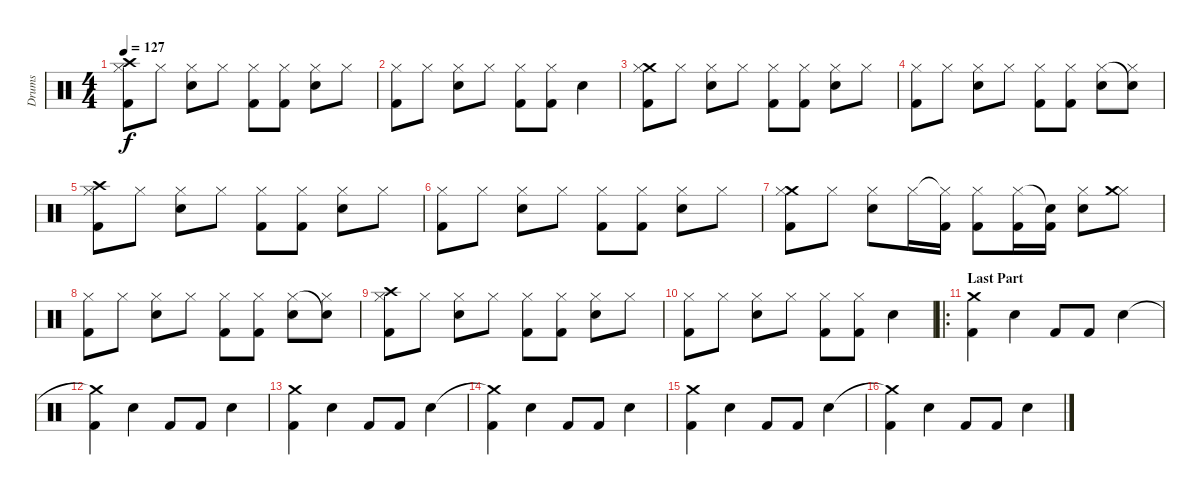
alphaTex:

\track ("Drums" "Drums") {instrument percussion}
\staff {score}
\articulation defaults
\ts (4 4)
\tempo 127
\clef neutral
\ks c
("Crash high (hit)" "Hi-Hat (closed)" "Kick (hit) 2").8{dy f} "Hi-Hat (closed)".8 ("Hi-Hat (closed)" "Electric Snare (hit)").8 "Hi-Hat (closed)".8 ("Hi-Hat (closed)" "Kick (hit) 2").8 ("Hi-Hat (closed)" "Kick (hit) 2").8 ("Hi-Hat (closed)" "Electric Snare (hit)").8 "Hi-Hat (closed)".8 |
("Hi-Hat (closed)" "Kick (hit) 2").8 "Hi-Hat (closed)".8 ("Hi-Hat (closed)" "Electric Snare (hit)").8 "Hi-Hat (closed)".8 ("Hi-Hat (closed)" "Kick (hit) 2").8 ("Hi-Hat (closed)" "Kick (hit) 2").8 "Electric Snare (hit)".4 |
("Crash medium (hit)" "Hi-Hat (closed)" "Kick (hit) 2").8 "Hi-Hat (closed)".8 ("Hi-Hat (closed)" "Electric Snare (hit)").8 "Hi-Hat (closed)".8 ("Hi-Hat (closed)" "Kick (hit) 2").8 ("Hi-Hat (closed)" "Kick (hit) 2").8 ("Hi-Hat (closed)" "Electric Snare (hit)").8 "Hi-Hat (closed)".8 |
("Hi-Hat (closed)" "Kick (hit) 2").8 "Hi-Hat (closed)".8 ("Hi-Hat (closed)" "Electric Snare (hit)").8 "Hi-Hat (closed)".8 ("Hi-Hat (closed)" "Kick (hit) 2").8 ("Hi-Hat (closed)" "Kick (hit) 2").8 ("Hi-Hat (closed)" "Electric Snare (hit)").8 ("Snare (hit)"{t} "Hi-Hat (closed)").8 |
("Crash high (hit)" "Hi-Hat (closed)" "Kick (hit) 2").8 "Hi-Hat (closed)".8 ("Hi-Hat (closed)" "Electric Snare (hit)").8 "Hi-Hat (closed)".8 ("Hi-Hat (closed)" "Kick (hit) 2").8 ("Hi-Hat (closed)" "Kick (hit) 2").8 ("Hi-Hat (closed)" "Electric Snare (hit)").8 "Hi-Hat (closed)".8 |
("Hi-Hat (closed)" "Kick (hit) 2").8 "Hi-Hat (closed)".8 ("Hi-Hat (closed)" "Electric Snare (hit)").8 "Hi-Hat (closed)".8 ("Hi-Hat (closed)" "Kick (hit) 2").8 ("Hi-Hat (closed)" "Kick (hit) 2").8 ("Hi-Hat (closed)" "Electric Snare (hit)").8 "Hi-Hat (closed)".8 |
("Crash medium (hit)" "Hi-Hat (closed)" "Kick (hit) 2").8 "Hi-Hat (closed)".8 ("Hi-Hat (closed)" "Electric Snare (hit)").8 "Hi-Hat (closed)".16 ("Hi-Hat (closed)"{t} "Kick (hit) 2").16 ("Hi-Hat (closed)" "Kick (hit) 2").8 ("Hi-Hat (closed)" "Kick (hit) 2").16 ("Snare (hit)"{t} "Kick (hit) 2").16 ("Hi-Hat (closed)" "Electric Snare (hit)").8 ("Hi-Hat (closed)" "Crash medium (hit)").8 |
("Hi-Hat (closed)" "Kick (hit) 2").8 "Hi-Hat (closed)".8 ("Hi-Hat (closed)" "Electric Snare (hit)").8 "Hi-Hat (closed)".8 ("Hi-Hat (closed)" "Kick (hit) 2").8 ("Hi-Hat (closed)" "Kick (hit) 2").8 ("Hi-Hat (closed)" "Electric Snare (hit)").8 ("Snare (hit)"{t} "Hi-Hat (closed)").8 |
("Crash high (hit)" "Hi-Hat (closed)" "Kick (hit) 2").8 "Hi-Hat (closed)".8 ("Hi-Hat (closed)" "Electric Snare (hit)").8 "Hi-Hat (closed)".8 ("Hi-Hat (closed)" "Kick (hit) 2").8 ("Hi-Hat (closed)" "Kick (hit) 2").8 ("Hi-Hat (closed)" "Electric Snare (hit)").8 "Hi-Hat (closed)".8 |
("Hi-Hat (closed)" "Kick (hit) 2").8 "Hi-Hat (closed)".8 ("Hi-Hat (closed)" "Electric Snare (hit)").8 "Hi-Hat (closed)".8 ("Hi-Hat (closed)" "Kick (hit) 2").8 ("Hi-Hat (closed)" "Kick (hit) 2").8 "Electric Snare (hit)".4 |
\ro
\section ("" "Last Part")
("Crash medium (hit)" "Kick (hit) 2").4 "Electric Snare (hit)".4 "Kick (hit) 2".8 "Kick (hit) 2".8 "Electric Snare (hit)".4 |
("Crash medium (hit)"{t} "Kick (hit) 2").4 "Electric Snare (hit)".4 "Kick (hit) 2".8 "Kick (hit) 2".8 "Electric Snare (hit)".4 |
("Crash medium (hit)" "Kick (hit) 2").4 "Electric Snare (hit)".4 "Kick (hit) 2".8 "Kick (hit) 2".8 "Electric Snare (hit)".4 |
("Crash medium (hit)"{t} "Kick (hit) 2").4 "Electric Snare (hit)".4 "Kick (hit) 2".8 "Kick (hit) 2".8 "Electric Snare (hit)".4 |
("Crash medium (hit)" "Kick (hit) 2").4 "Electric Snare (hit)".4 "Kick (hit) 2".8 "Kick (hit) 2".8 "Electric Snare (hit)".4 |
("Crash medium (hit)"{t} "Kick (hit) 2").4 "Electric Snare (hit)".4 "Kick (hit) 2".8 "Kick (hit) 2".8 "Electric Snare (hit)".4
